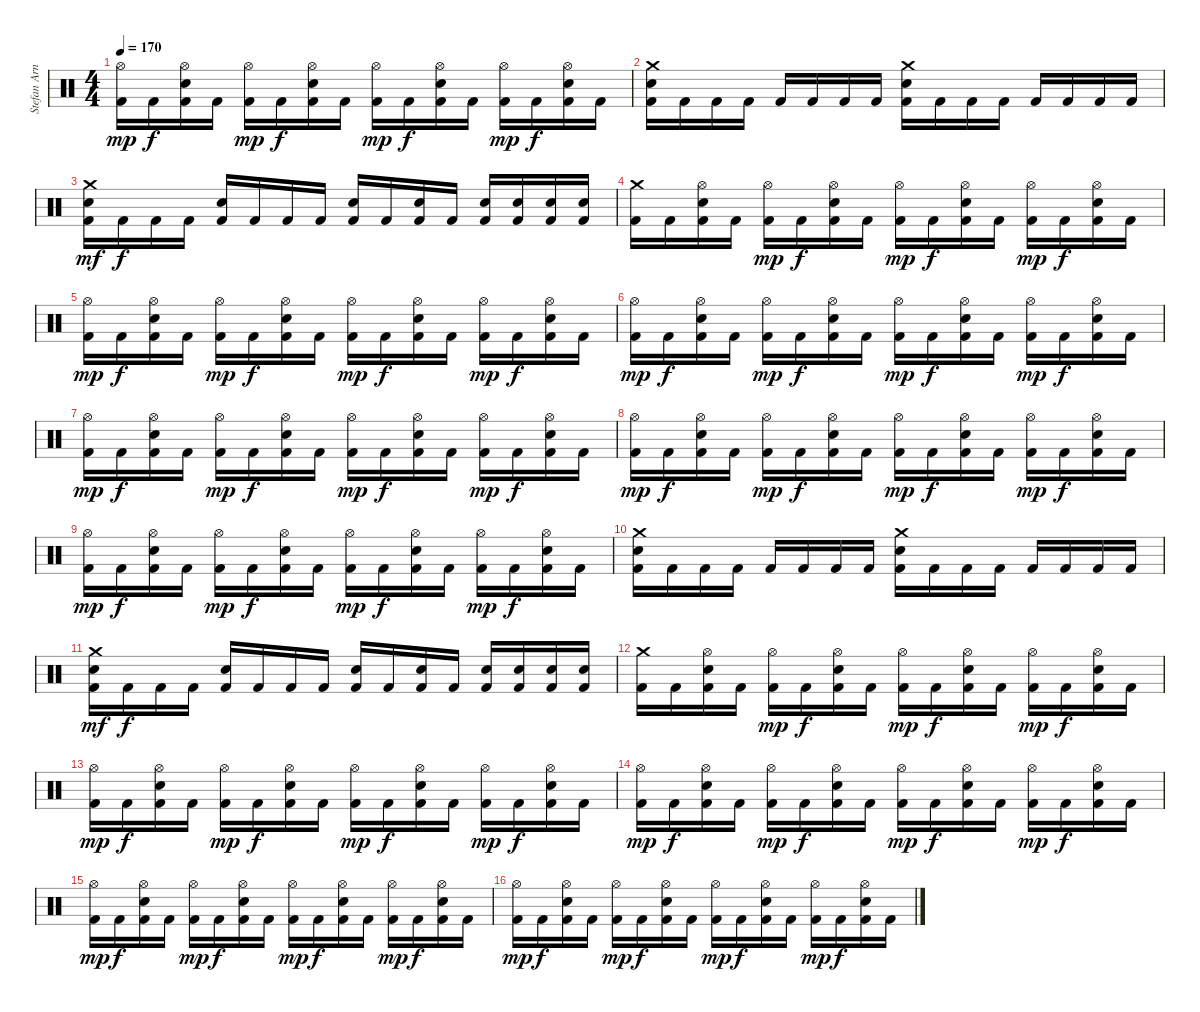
\track ("Stefan Arnold" "Stefan Arn") {instrument percussion}
\staff {score}
\articulation defaults
\ts (4 4)
\tempo 170
\clef neutral
\ks c
("Hi-Hat (open)" "Kick (hit) 2").16{dy mp} "Kick (hit) 2".16{dy f} ("Hi-Hat (open)" "Electric Snare (hit)" "Kick (hit) 2").16 "Kick (hit) 2".16 ("Hi-Hat (open)" "Kick (hit) 2").16{dy mp} "Kick (hit) 2".16{dy f} ("Hi-Hat (open)" "Electric Snare (hit)" "Kick (hit) 2").16 "Kick (hit) 2".16 ("Hi-Hat (open)" "Kick (hit) 2").16{dy mp} "Kick (hit) 2".16{dy f} ("Hi-Hat (open)" "Electric Snare (hit)" "Kick (hit) 2").16 "Kick (hit) 2".16 ("Hi-Hat (open)" "Kick (hit) 2").16{dy mp} "Kick (hit) 2".16{dy f} ("Hi-Hat (open)" "Electric Snare (hit)" "Kick (hit) 2").16 "Kick (hit) 2".16 |
("Crash medium (hit)" "Electric Snare (hit)" "Kick (hit) 2").16 "Kick (hit) 2".16 "Kick (hit) 2".16 "Kick (hit) 2".16 "Kick (hit) 2".16 "Kick (hit) 2".16 "Kick (hit) 2".16 "Kick (hit) 2".16 ("Crash medium (hit)" "Electric Snare (hit)" "Kick (hit) 2").16 "Kick (hit) 2".16 "Kick (hit) 2".16 "Kick (hit) 2".16 "Kick (hit) 2".16 "Kick (hit) 2".16 "Kick (hit) 2".16 "Kick (hit) 2".16 |
("Crash medium (hit)" "Electric Snare (hit)" "Kick (hit) 2").16{dy mf} "Kick (hit) 2".16{dy f} "Kick (hit) 2".16 "Kick (hit) 2".16 ("Electric Snare (hit)" "Kick (hit) 2").16 "Kick (hit) 2".16 "Kick (hit) 2".16 "Kick (hit) 2".16 ("Electric Snare (hit)" "Kick (hit) 2").16 "Kick (hit) 2".16 ("Electric Snare (hit)" "Kick (hit) 2").16 "Kick (hit) 2".16 ("Electric Snare (hit)" "Kick (hit) 2").16 ("Electric Snare (hit)" "Kick (hit) 2").16 ("Electric Snare (hit)" "Kick (hit) 2").16 ("Electric Snare (hit)" "Kick (hit) 2").16 |
("Crash medium (hit)" "Kick (hit) 2").16 "Kick (hit) 2".16 ("Hi-Hat (open)" "Electric Snare (hit)" "Kick (hit) 2").16 "Kick (hit) 2".16 ("Hi-Hat (open)" "Kick (hit) 2").16{dy mp} "Kick (hit) 2".16{dy f} ("Hi-Hat (open)" "Electric Snare (hit)" "Kick (hit) 2").16 "Kick (hit) 2".16 ("Hi-Hat (open)" "Kick (hit) 2").16{dy mp} "Kick (hit) 2".16{dy f} ("Hi-Hat (open)" "Electric Snare (hit)" "Kick (hit) 2").16 "Kick (hit) 2".16 ("Hi-Hat (open)" "Kick (hit) 2").16{dy mp} "Kick (hit) 2".16{dy f} ("Hi-Hat (open)" "Electric Snare (hit)" "Kick (hit) 2").16 "Kick (hit) 2".16 |
("Hi-Hat (open)" "Kick (hit) 2").16{dy mp} "Kick (hit) 2".16{dy f} ("Hi-Hat (open)" "Electric Snare (hit)" "Kick (hit) 2").16 "Kick (hit) 2".16 ("Hi-Hat (open)" "Kick (hit) 2").16{dy mp} "Kick (hit) 2".16{dy f} ("Hi-Hat (open)" "Electric Snare (hit)" "Kick (hit) 2").16 "Kick (hit) 2".16 ("Hi-Hat (open)" "Kick (hit) 2").16{dy mp} "Kick (hit) 2".16{dy f} ("Hi-Hat (open)" "Electric Snare (hit)" "Kick (hit) 2").16 "Kick (hit) 2".16 ("Hi-Hat (open)" "Kick (hit) 2").16{dy mp} "Kick (hit) 2".16{dy f} ("Hi-Hat (open)" "Electric Snare (hit)" "Kick (hit) 2").16 "Kick (hit) 2".16 |
("Hi-Hat (open)" "Kick (hit) 2").16{dy mp} "Kick (hit) 2".16{dy f} ("Hi-Hat (open)" "Electric Snare (hit)" "Kick (hit) 2").16 "Kick (hit) 2".16 ("Hi-Hat (open)" "Kick (hit) 2").16{dy mp} "Kick (hit) 2".16{dy f} ("Hi-Hat (open)" "Electric Snare (hit)" "Kick (hit) 2").16 "Kick (hit) 2".16 ("Hi-Hat (open)" "Kick (hit) 2").16{dy mp} "Kick (hit) 2".16{dy f} ("Hi-Hat (open)" "Electric Snare (hit)" "Kick (hit) 2").16 "Kick (hit) 2".16 ("Hi-Hat (open)" "Kick (hit) 2").16{dy mp} "Kick (hit) 2".16{dy f} ("Hi-Hat (open)" "Electric Snare (hit)" "Kick (hit) 2").16 "Kick (hit) 2".16 |
("Hi-Hat (open)" "Kick (hit) 2").16{dy mp} "Kick (hit) 2".16{dy f} ("Hi-Hat (open)" "Electric Snare (hit)" "Kick (hit) 2").16 "Kick (hit) 2".16 ("Hi-Hat (open)" "Kick (hit) 2").16{dy mp} "Kick (hit) 2".16{dy f} ("Hi-Hat (open)" "Electric Snare (hit)" "Kick (hit) 2").16 "Kick (hit) 2".16 ("Hi-Hat (open)" "Kick (hit) 2").16{dy mp} "Kick (hit) 2".16{dy f} ("Hi-Hat (open)" "Electric Snare (hit)" "Kick (hit) 2").16 "Kick (hit) 2".16 ("Hi-Hat (open)" "Kick (hit) 2").16{dy mp} "Kick (hit) 2".16{dy f} ("Hi-Hat (open)" "Electric Snare (hit)" "Kick (hit) 2").16 "Kick (hit) 2".16 |
("Hi-Hat (open)" "Kick (hit) 2").16{dy mp} "Kick (hit) 2".16{dy f} ("Hi-Hat (open)" "Electric Snare (hit)" "Kick (hit) 2").16 "Kick (hit) 2".16 ("Hi-Hat (open)" "Kick (hit) 2").16{dy mp} "Kick (hit) 2".16{dy f} ("Hi-Hat (open)" "Electric Snare (hit)" "Kick (hit) 2").16 "Kick (hit) 2".16 ("Hi-Hat (open)" "Kick (hit) 2").16{dy mp} "Kick (hit) 2".16{dy f} ("Hi-Hat (open)" "Electric Snare (hit)" "Kick (hit) 2").16 "Kick (hit) 2".16 ("Hi-Hat (open)" "Kick (hit) 2").16{dy mp} "Kick (hit) 2".16{dy f} ("Hi-Hat (open)" "Electric Snare (hit)" "Kick (hit) 2").16 "Kick (hit) 2".16 |
("Hi-Hat (open)" "Kick (hit) 2").16{dy mp} "Kick (hit) 2".16{dy f} ("Hi-Hat (open)" "Electric Snare (hit)" "Kick (hit) 2").16 "Kick (hit) 2".16 ("Hi-Hat (open)" "Kick (hit) 2").16{dy mp} "Kick (hit) 2".16{dy f} ("Hi-Hat (open)" "Electric Snare (hit)" "Kick (hit) 2").16 "Kick (hit) 2".16 ("Hi-Hat (open)" "Kick (hit) 2").16{dy mp} "Kick (hit) 2".16{dy f} ("Hi-Hat (open)" "Electric Snare (hit)" "Kick (hit) 2").16 "Kick (hit) 2".16 ("Hi-Hat (open)" "Kick (hit) 2").16{dy mp} "Kick (hit) 2".16{dy f} ("Hi-Hat (open)" "Electric Snare (hit)" "Kick (hit) 2").16 "Kick (hit) 2".16 |
("Crash medium (hit)" "Electric Snare (hit)" "Kick (hit) 2").16 "Kick (hit) 2".16 "Kick (hit) 2".16 "Kick (hit) 2".16 "Kick (hit) 2".16 "Kick (hit) 2".16 "Kick (hit) 2".16 "Kick (hit) 2".16 ("Crash medium (hit)" "Electric Snare (hit)" "Kick (hit) 2").16 "Kick (hit) 2".16 "Kick (hit) 2".16 "Kick (hit) 2".16 "Kick (hit) 2".16 "Kick (hit) 2".16 "Kick (hit) 2".16 "Kick (hit) 2".16 |
("Crash medium (hit)" "Electric Snare (hit)" "Kick (hit) 2").16{dy mf} "Kick (hit) 2".16{dy f} "Kick (hit) 2".16 "Kick (hit) 2".16 ("Electric Snare (hit)" "Kick (hit) 2").16 "Kick (hit) 2".16 "Kick (hit) 2".16 "Kick (hit) 2".16 ("Electric Snare (hit)" "Kick (hit) 2").16 "Kick (hit) 2".16 ("Electric Snare (hit)" "Kick (hit) 2").16 "Kick (hit) 2".16 ("Electric Snare (hit)" "Kick (hit) 2").16 ("Electric Snare (hit)" "Kick (hit) 2").16 ("Electric Snare (hit)" "Kick (hit) 2").16 ("Electric Snare (hit)" "Kick (hit) 2").16 |
("Crash medium (hit)" "Kick (hit) 2").16 "Kick (hit) 2".16 ("Hi-Hat (open)" "Electric Snare (hit)" "Kick (hit) 2").16 "Kick (hit) 2".16 ("Hi-Hat (open)" "Kick (hit) 2").16{dy mp} "Kick (hit) 2".16{dy f} ("Hi-Hat (open)" "Electric Snare (hit)" "Kick (hit) 2").16 "Kick (hit) 2".16 ("Hi-Hat (open)" "Kick (hit) 2").16{dy mp} "Kick (hit) 2".16{dy f} ("Hi-Hat (open)" "Electric Snare (hit)" "Kick (hit) 2").16 "Kick (hit) 2".16 ("Hi-Hat (open)" "Kick (hit) 2").16{dy mp} "Kick (hit) 2".16{dy f} ("Hi-Hat (open)" "Electric Snare (hit)" "Kick (hit) 2").16 "Kick (hit) 2".16 |
("Hi-Hat (open)" "Kick (hit) 2").16{dy mp} "Kick (hit) 2".16{dy f} ("Hi-Hat (open)" "Electric Snare (hit)" "Kick (hit) 2").16 "Kick (hit) 2".16 ("Hi-Hat (open)" "Kick (hit) 2").16{dy mp} "Kick (hit) 2".16{dy f} ("Hi-Hat (open)" "Electric Snare (hit)" "Kick (hit) 2").16 "Kick (hit) 2".16 ("Hi-Hat (open)" "Kick (hit) 2").16{dy mp} "Kick (hit) 2".16{dy f} ("Hi-Hat (open)" "Electric Snare (hit)" "Kick (hit) 2").16 "Kick (hit) 2".16 ("Hi-Hat (open)" "Kick (hit) 2").16{dy mp} "Kick (hit) 2".16{dy f} ("Hi-Hat (open)" "Electric Snare (hit)" "Kick (hit) 2").16 "Kick (hit) 2".16 |
("Hi-Hat (open)" "Kick (hit) 2").16{dy mp} "Kick (hit) 2".16{dy f} ("Hi-Hat (open)" "Electric Snare (hit)" "Kick (hit) 2").16 "Kick (hit) 2".16 ("Hi-Hat (open)" "Kick (hit) 2").16{dy mp} "Kick (hit) 2".16{dy f} ("Hi-Hat (open)" "Electric Snare (hit)" "Kick (hit) 2").16 "Kick (hit) 2".16 ("Hi-Hat (open)" "Kick (hit) 2").16{dy mp} "Kick (hit) 2".16{dy f} ("Hi-Hat (open)" "Electric Snare (hit)" "Kick (hit) 2").16 "Kick (hit) 2".16 ("Hi-Hat (open)" "Kick (hit) 2").16{dy mp} "Kick (hit) 2".16{dy f} ("Hi-Hat (open)" "Electric Snare (hit)" "Kick (hit) 2").16 "Kick (hit) 2".16 |
("Hi-Hat (open)" "Kick (hit) 2").16{dy mp} "Kick (hit) 2".16{dy f} ("Hi-Hat (open)" "Electric Snare (hit)" "Kick (hit) 2").16 "Kick (hit) 2".16 ("Hi-Hat (open)" "Kick (hit) 2").16{dy mp} "Kick (hit) 2".16{dy f} ("Hi-Hat (open)" "Electric Snare (hit)" "Kick (hit) 2").16 "Kick (hit) 2".16 ("Hi-Hat (open)" "Kick (hit) 2").16{dy mp} "Kick (hit) 2".16{dy f} ("Hi-Hat (open)" "Electric Snare (hit)" "Kick (hit) 2").16 "Kick (hit) 2".16 ("Hi-Hat (open)" "Kick (hit) 2").16{dy mp} "Kick (hit) 2".16{dy f} ("Hi-Hat (open)" "Electric Snare (hit)" "Kick (hit) 2").16 "Kick (hit) 2".16 |
("Hi-Hat (open)" "Kick (hit) 2").16{dy mp} "Kick (hit) 2".16{dy f} ("Hi-Hat (open)" "Electric Snare (hit)" "Kick (hit) 2").16 "Kick (hit) 2".16 ("Hi-Hat (open)" "Kick (hit) 2").16{dy mp} "Kick (hit) 2".16{dy f} ("Hi-Hat (open)" "Electric Snare (hit)" "Kick (hit) 2").16 "Kick (hit) 2".16 ("Hi-Hat (open)" "Kick (hit) 2").16{dy mp} "Kick (hit) 2".16{dy f} ("Hi-Hat (open)" "Electric Snare (hit)" "Kick (hit) 2").16 "Kick (hit) 2".16 ("Hi-Hat (open)" "Kick (hit) 2").16{dy mp} "Kick (hit) 2".16{dy f} ("Hi-Hat (open)" "Electric Snare (hit)" "Kick (hit) 2").16 "Kick (hit) 2".16
